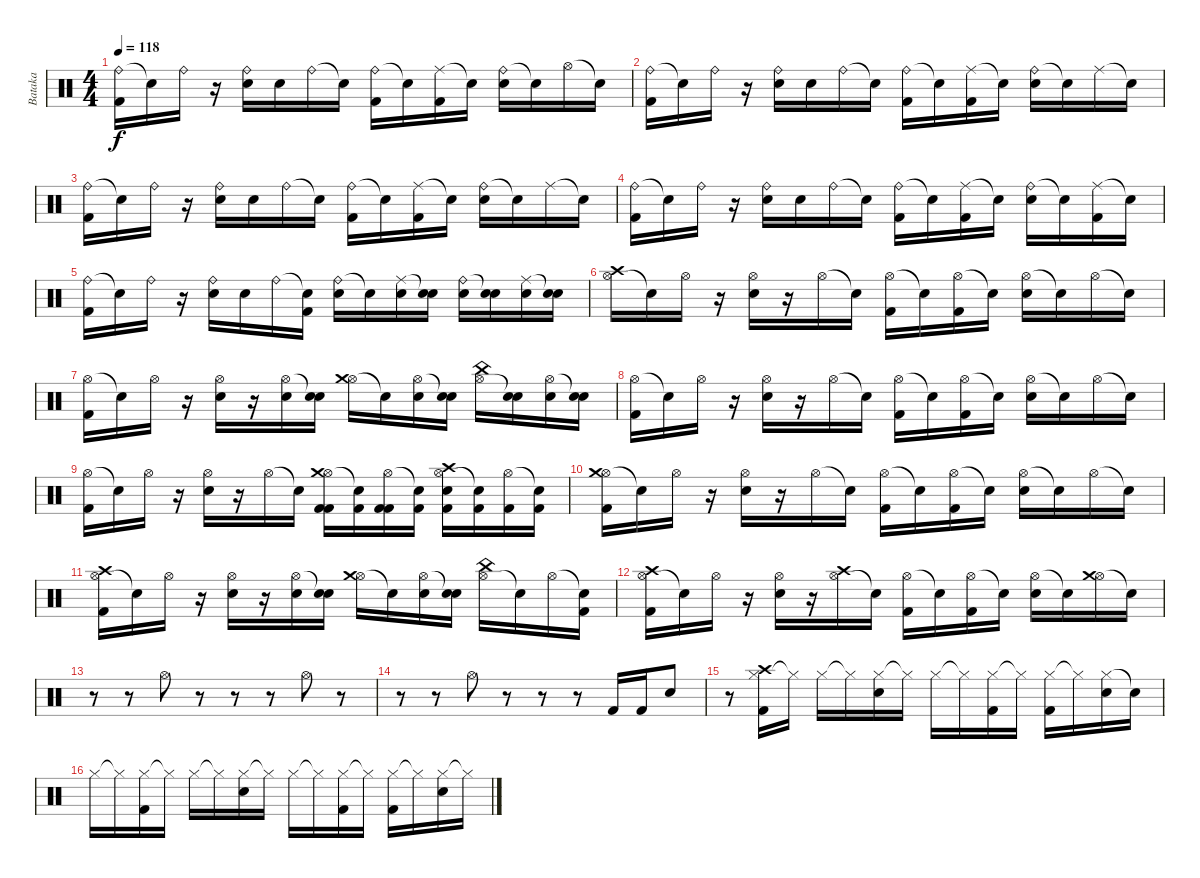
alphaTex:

\track ("Bataka" "Bataka") {instrument percussion}
\staff {score}
\articulation defaults
\ts (4 4)
\tempo 118
\clef neutral
\ks c
("Ride (bell)" "Kick (hit) 2").16{dy f} "Snare (hit)"{t}.16 "Ride (bell)"{x}.16 r.16 ("Ride (bell)" "Snare (hit) 2").16 "Snare (hit)"{x}.16 "Ride (bell)"{x}.16 "Snare (hit)"{t}.16 ("Ride (bell)" "Kick (hit) 2").16 "Snare (hit)"{t}.16 ("Ride (middle)"{x} "Kick (hit) 2").16 "Snare (hit)"{t}.16 ("Ride (bell)" "Snare (hit) 2").16 "Snare (hit)"{t}.16 "Hi-Hat (open)".16 "Snare (hit)"{t}.16 |
("Ride (bell)" "Kick (hit) 2").16 "Snare (hit)"{t}.16 "Ride (bell)"{x}.16 r.16 ("Ride (bell)" "Snare (hit) 2").16 "Snare (hit)"{x}.16 "Ride (bell)"{x}.16 "Snare (hit)"{t}.16 ("Ride (bell)" "Kick (hit) 2").16 "Snare (hit)"{t}.16 ("Ride (middle)"{x} "Kick (hit) 2").16 "Snare (hit)"{t}.16 ("Ride (bell)" "Snare (hit) 2").16 "Snare (hit)"{t}.16 "Ride (middle)"{x}.16 "Snare (hit)"{t}.16 |
("Ride (bell)" "Kick (hit) 2").16 "Snare (hit)"{t}.16 "Ride (bell)"{x}.16 r.16 ("Ride (bell)" "Snare (hit) 2").16 "Snare (hit)"{x}.16 "Ride (bell)"{x}.16 "Snare (hit)"{t}.16 ("Ride (bell)" "Kick (hit) 2").16 "Snare (hit)"{t}.16 ("Ride (middle)"{x} "Kick (hit) 2").16 "Snare (hit)"{t}.16 ("Ride (bell)" "Snare (hit) 2").16 "Snare (hit)"{t}.16 "Ride (middle)"{x}.16 "Snare (hit)"{t}.16 |
("Ride (bell)" "Kick (hit) 2").16 "Snare (hit)"{t}.16 "Ride (bell)"{x}.16 r.16 ("Ride (bell)" "Snare (hit) 2").16 "Snare (hit)"{x}.16 "Ride (bell)"{x}.16 "Snare (hit)"{t}.16 ("Ride (bell)" "Kick (hit) 2").16 "Snare (hit)"{t}.16 ("Ride (middle)"{x} "Kick (hit) 2").16 "Snare (hit)"{t}.16 ("Ride (bell)" "Snare (hit) 2").16 "Snare (hit)"{t}.16 ("Ride (middle)"{x} "Kick (hit) 2").16 "Snare (hit)"{t}.16 |
("Ride (bell)" "Kick (hit) 2").16 "Snare (hit)"{t}.16 "Ride (bell)"{x}.16 r.16 ("Ride (bell)" "Snare (hit) 2").16 "Snare (hit)"{x}.16 "Ride (bell)"{x}.16 ("Snare (hit)"{t} "Kick (hit) 2").16 ("Ride (bell)" "Snare (hit) 2").16 "Snare (hit)"{t}.16 ("Ride (middle)"{x} "Snare (hit) 2").16 ("Snare (hit)"{t} "Snare (hit) 2").16 ("Ride (bell)" "Snare (hit) 2").16 ("Snare (hit)"{t} "Snare (hit) 2").16 ("Ride (middle)"{x} "Snare (hit) 2").16 ("Snare (hit)"{t} "Snare (hit) 2").16 |
("Hi-Hat (open)" "Crash high (hit)").16 "Snare (hit)"{t}.16 "Hi-Hat (open)".16 r.16 ("Hi-Hat (open)" "Snare (hit) 2").16 r.16 "Hi-Hat (open)".16 "Snare (hit)"{t}.16 ("Hi-Hat (open)" "Kick (hit) 2").16 "Snare (hit)"{t}.16 ("Hi-Hat (open)" "Kick (hit) 2").16 "Snare (hit)"{t}.16 ("Hi-Hat (open)" "Snare (hit) 2").16 "Snare (hit)"{t}.16 "Hi-Hat (open)".16 "Snare (hit)"{t}.16 |
("Hi-Hat (open)" "Kick (hit) 2").16 "Snare (hit)"{t}.16 "Hi-Hat (open)".16 r.16 ("Hi-Hat (open)" "Snare (hit) 2").16 r.16 ("Hi-Hat (open)" "Snare (hit) 2").16 ("Snare (hit)"{t} "Snare (hit) 2").16 ("Hi-Hat (open)" "Crash medium (hit)").16 "Snare (hit)"{t}.16 ("Hi-Hat (open)" "Snare (hit) 2").16 ("Snare (hit)"{t} "Snare (hit) 2").16 ("Hi-Hat (open)" "China (hit)").16 ("Snare (hit)"{t} "Snare (hit) 2"{x}).16 ("Hi-Hat (open)" "Snare (hit) 2").16 ("Snare (hit)"{t} "Snare (hit) 2"{x}).16 |
("Hi-Hat (open)" "Kick (hit) 2").16 "Snare (hit)"{t}.16 "Hi-Hat (open)".16 r.16 ("Hi-Hat (open)" "Snare (hit) 2").16 r.16 "Hi-Hat (open)".16 "Snare (hit)"{t}.16 ("Hi-Hat (open)" "Kick (hit) 2").16 "Snare (hit)"{t}.16 ("Hi-Hat (open)" "Kick (hit) 2").16 "Snare (hit)"{t}.16 ("Hi-Hat (open)" "Snare (hit) 2").16 "Snare (hit)"{t}.16 "Hi-Hat (open)".16 "Snare (hit)"{t}.16 |
("Hi-Hat (open)" "Kick (hit) 2").16 "Snare (hit)"{t}.16 "Hi-Hat (open)".16 r.16 ("Hi-Hat (open)" "Snare (hit) 2").16 r.16 "Hi-Hat (open)".16 "Snare (hit)"{t}.16 ("Hi-Hat (open)" "Kick (hit) 2" "Crash medium (hit)" "Kick (hit) 2").16 ("Snare (hit)"{t} "Kick (hit) 2").16 ("Hi-Hat (open)" "Kick (hit) 2" "Kick (hit) 2").16 ("Snare (hit)"{t} "Kick (hit) 2").16 ("Hi-Hat (open)" "Snare (hit) 2" "Crash high (hit)" "Kick (hit) 2").16 ("Snare (hit)"{t} "Kick (hit) 2").16 ("Hi-Hat (open)" "Kick (hit) 2").16 ("Snare (hit)"{t} "Kick (hit) 2").16 |
("Hi-Hat (open)" "Kick (hit) 2" "Crash medium (hit)").16 "Snare (hit)"{t}.16 "Hi-Hat (open)".16 r.16 ("Hi-Hat (open)" "Snare (hit) 2").16 r.16 "Hi-Hat (open)".16 "Snare (hit)"{t}.16 ("Hi-Hat (open)" "Kick (hit) 2").16 "Snare (hit)"{t}.16 ("Hi-Hat (open)" "Kick (hit) 2").16 "Snare (hit)"{t}.16 ("Hi-Hat (open)" "Snare (hit) 2").16 "Snare (hit)"{t}.16 "Hi-Hat (open)".16 "Snare (hit)"{t}.16 |
("Hi-Hat (open)" "Kick (hit) 2" "Crash high (hit)").16 "Snare (hit)"{t}.16 "Hi-Hat (open)".16 r.16 ("Hi-Hat (open)" "Snare (hit) 2").16 r.16 ("Hi-Hat (open)" "Snare (hit) 2").16 ("Snare (hit)"{t} "Snare (hit) 2").16 ("Hi-Hat (open)" "Crash medium (hit)").16 "Snare (hit)"{t}.16 ("Hi-Hat (open)" "Snare (hit) 2").16 ("Snare (hit)"{t} "Snare (hit) 2").16 ("Hi-Hat (open)" "China (hit)").16 "Snare (hit)"{t}.16 "Hi-Hat (open)".16 ("Snare (hit)"{t} "Kick (hit) 2").16 |
("Hi-Hat (open)" "Kick (hit) 2" "Crash high (hit)").16 "Snare (hit)"{t}.16 "Hi-Hat (open)".16 r.16 ("Hi-Hat (open)" "Snare (hit) 2").16 r.16 ("Hi-Hat (open)" "Crash high (hit)").16 "Snare (hit)"{t}.16 ("Hi-Hat (open)" "Kick (hit) 2").16 "Snare (hit)"{t}.16 ("Hi-Hat (open)" "Kick (hit) 2").16 "Snare (hit)"{t}.16 ("Hi-Hat (open)" "Snare (hit) 2").16 "Snare (hit)"{t}.16 ("Hi-Hat (open)" "Crash medium (hit)").16 "Snare (hit)"{t}.16 |
r.8 r.8 "Hi-Hat (open)".8 r.8 r.8 r.8 "Hi-Hat (open)".8 r.8 |
r.8 r.8 "Hi-Hat (open)".8 r.8 r.8 r.8 "Kick (hit) 2".16 "Kick (hit) 2".16 "Electric Snare (hit)".8 |
r.8 ("Hi-Hat (closed)" "Kick (hit) 2" "Crash high (hit)").16 "Hi-Hat (closed)"{t}.16 "Hi-Hat (closed)".16 "Hi-Hat (closed)"{t}.16 ("Hi-Hat (closed)" "Snare (hit) 2").16 "Hi-Hat (closed)"{t}.16 "Hi-Hat (closed)".16 "Hi-Hat (closed)"{t}.16 ("Hi-Hat (closed)" "Kick (hit) 2").16 "Hi-Hat (closed)"{t}.16 ("Hi-Hat (closed)" "Kick (hit) 2").16 "Hi-Hat (closed)"{t}.16 ("Hi-Hat (closed)" "Snare (hit) 2").16 "Snare (hit)"{t}.16 |
"Hi-Hat (closed)".16 "Hi-Hat (closed)"{t}.16 ("Hi-Hat (closed)" "Kick (hit) 2").16 "Hi-Hat (closed)"{t}.16 "Hi-Hat (closed)".16 "Hi-Hat (closed)"{t}.16 ("Hi-Hat (closed)" "Snare (hit) 2").16 "Hi-Hat (closed)"{t}.16 "Hi-Hat (closed)".16 "Hi-Hat (closed)"{t}.16 ("Hi-Hat (closed)" "Kick (hit) 2").16 "Hi-Hat (closed)"{t}.16 ("Hi-Hat (closed)" "Kick (hit) 2").16 "Hi-Hat (closed)"{t}.16 ("Hi-Hat (closed)" "Snare (hit) 2").16 "Hi-Hat (closed)"{t}.16
